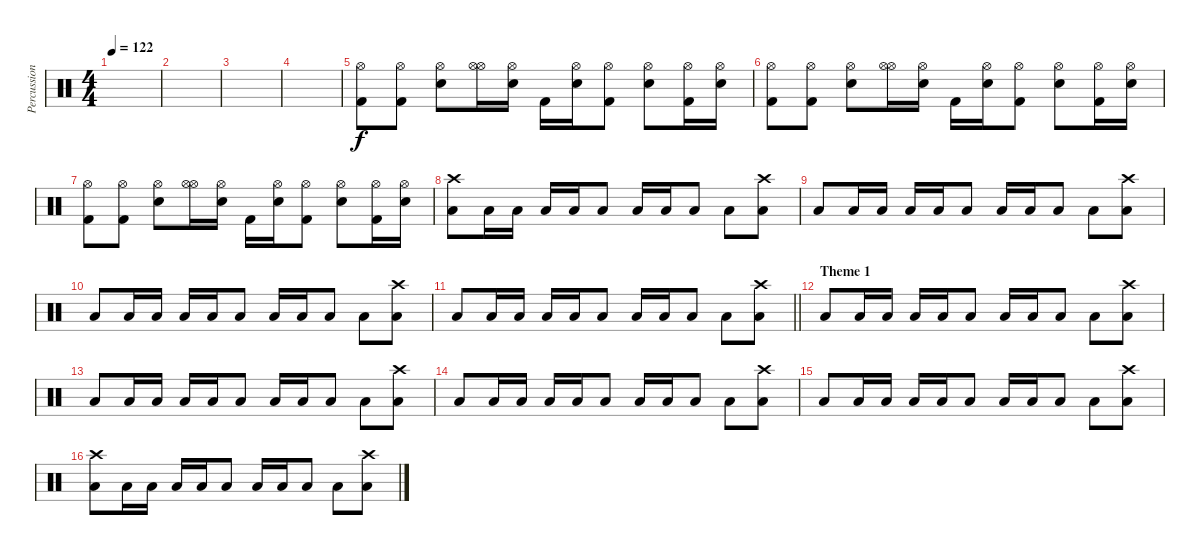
\track ("Percussion" "Percussion") {instrument percussion}
\staff {score}
\articulation defaults
\ts (4 4)
\tempo 122
\clef neutral
\ks c
|
|
|
|
("Hi-Hat (open)" "Kick (hit) 2").8 ("Hi-Hat (open)" "Kick (hit) 2").8 ("Hi-Hat (open)" "Electric Snare (hit)").8 ("Hi-Hat (open)" "Hi-Hat (open)").16 ("Hi-Hat (open)" "Electric Snare (hit)").16 "Kick (hit) 2".16 ("Hi-Hat (open)" "Electric Snare (hit)").16 ("Hi-Hat (open)" "Kick (hit) 2").8 ("Hi-Hat (open)" "Electric Snare (hit)").8 ("Hi-Hat (open)" "Kick (hit) 2").16 ("Hi-Hat (open)" "Electric Snare (hit)").16 |
("Hi-Hat (open)" "Kick (hit) 2").8 ("Hi-Hat (open)" "Kick (hit) 2").8 ("Hi-Hat (open)" "Electric Snare (hit)").8 ("Hi-Hat (open)" "Hi-Hat (open)").16 ("Hi-Hat (open)" "Electric Snare (hit)").16 "Kick (hit) 2".16 ("Hi-Hat (open)" "Electric Snare (hit)").16 ("Hi-Hat (open)" "Kick (hit) 2").8 ("Hi-Hat (open)" "Electric Snare (hit)").8 ("Hi-Hat (open)" "Kick (hit) 2").16 ("Hi-Hat (open)" "Electric Snare (hit)").16 |
("Hi-Hat (open)" "Kick (hit) 2").8 ("Hi-Hat (open)" "Kick (hit) 2").8 ("Hi-Hat (open)" "Electric Snare (hit)").8 ("Hi-Hat (open)" "Hi-Hat (open)").16 ("Hi-Hat (open)" "Electric Snare (hit)").16 "Kick (hit) 2".16 ("Hi-Hat (open)" "Electric Snare (hit)").16 ("Hi-Hat (open)" "Kick (hit) 2").8 ("Hi-Hat (open)" "Electric Snare (hit)").8 ("Hi-Hat (open)" "Kick (hit) 2").16 ("Hi-Hat (open)" "Electric Snare (hit)").16 |
("Low Tom (hit)" "Crash high (hit)").8 "Low Tom (hit)".16 "Low Tom (hit)".16 "Low Tom (hit)".16 "Low Tom (hit)".16 "Low Tom (hit)".8 "Low Tom (hit)".16 "Low Tom (hit)".16 "Low Tom (hit)".8 "Low Tom (hit)".8 ("Low Tom (hit)" "Crash high (hit)").8 |
"Low Tom (hit)".8 "Low Tom (hit)".16 "Low Tom (hit)".16 "Low Tom (hit)".16 "Low Tom (hit)".16 "Low Tom (hit)".8 "Low Tom (hit)".16 "Low Tom (hit)".16 "Low Tom (hit)".8 "Low Tom (hit)".8 ("Low Tom (hit)" "Crash high (hit)").8 |
"Low Tom (hit)".8 "Low Tom (hit)".16 "Low Tom (hit)".16 "Low Tom (hit)".16 "Low Tom (hit)".16 "Low Tom (hit)".8 "Low Tom (hit)".16 "Low Tom (hit)".16 "Low Tom (hit)".8 "Low Tom (hit)".8 ("Low Tom (hit)" "Crash high (hit)").8 |
\barLineRight lightlight "Low Tom (hit)".8 "Low Tom (hit)".16 "Low Tom (hit)".16 "Low Tom (hit)".16 "Low Tom (hit)".16 "Low Tom (hit)".8 "Low Tom (hit)".16 "Low Tom (hit)".16 "Low Tom (hit)".8 "Low Tom (hit)".8
("Low Tom (hit)" "Crash high (hit)").8 |
\section ("" "Theme 1")
"Low Tom (hit)".8 "Low Tom (hit)".16 "Low Tom (hit)".16 "Low Tom (hit)".16 "Low Tom (hit)".16 "Low Tom (hit)".8 "Low Tom (hit)".16 "Low Tom (hit)".16 "Low Tom (hit)".8 "Low Tom (hit)".8 ("Low Tom (hit)" "Crash high (hit)").8 |
"Low Tom (hit)".8 "Low Tom (hit)".16 "Low Tom (hit)".16 "Low Tom (hit)".16 "Low Tom (hit)".16 "Low Tom (hit)".8 "Low Tom (hit)".16 "Low Tom (hit)".16 "Low Tom (hit)".8 "Low Tom (hit)".8 ("Low Tom (hit)" "Crash high (hit)").8 |
"Low Tom (hit)".8 "Low Tom (hit)".16 "Low Tom (hit)".16 "Low Tom (hit)".16 "Low Tom (hit)".16 "Low Tom (hit)".8 "Low Tom (hit)".16 "Low Tom (hit)".16 "Low Tom (hit)".8 "Low Tom (hit)".8 ("Low Tom (hit)" "Crash high (hit)").8 |
"Low Tom (hit)".8 "Low Tom (hit)".16 "Low Tom (hit)".16 "Low Tom (hit)".16 "Low Tom (hit)".16 "Low Tom (hit)".8 "Low Tom (hit)".16 "Low Tom (hit)".16 "Low Tom (hit)".8 "Low Tom (hit)".8 ("Low Tom (hit)" "Crash high (hit)").8 |
("Low Tom (hit)" "Crash high (hit)").8 "Low Tom (hit)".16 "Low Tom (hit)".16 "Low Tom (hit)".16 "Low Tom (hit)".16 "Low Tom (hit)".8 "Low Tom (hit)".16 "Low Tom (hit)".16 "Low Tom (hit)".8 "Low Tom (hit)".8 ("Low Tom (hit)" "Crash high (hit)").8
